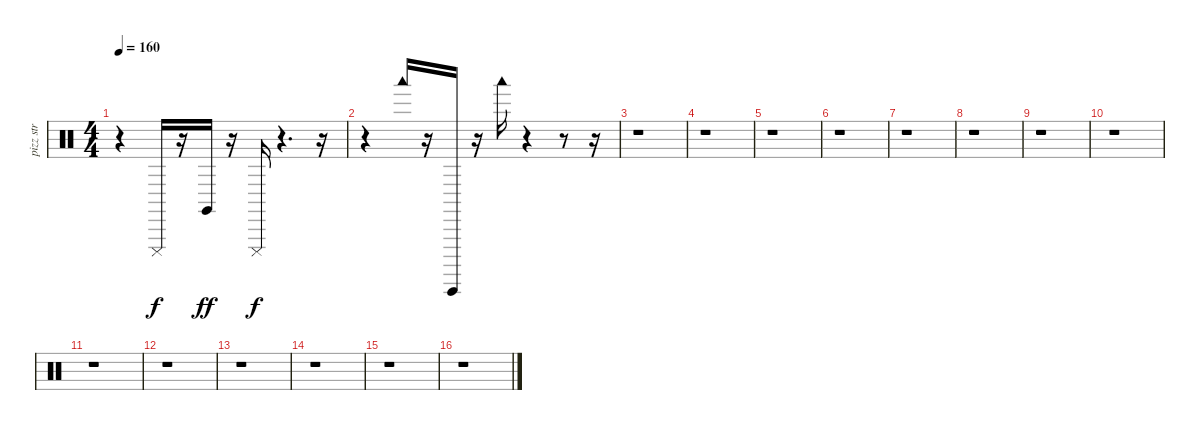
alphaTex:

\track ("pizz str" "pizz str") {instrument percussion}
\staff {score}
\articulation defaults
\ts (4 4)
\tempo 160
\clef neutral
\ks c
r.4{dy f} "Cuica (mute)".16 r.16 "Claves (hit)".16{dy ff} r.16 "Cuica (mute)".16{dy f} r.4{d} r.16 |
r.4 "Woodblock low (hit)".16 r.16 "Guiro (hit)".16 r.16 "Woodblock low (hit)".16 r.4 r.8 r.16 |
r.1 |
r.1 |
r.1 |
r.1 |
r.1 |
r.1 |
r.1 |
r.1 |
r.1 |
r.1 |
r.1 |
r.1 |
r.1 |
r.1
